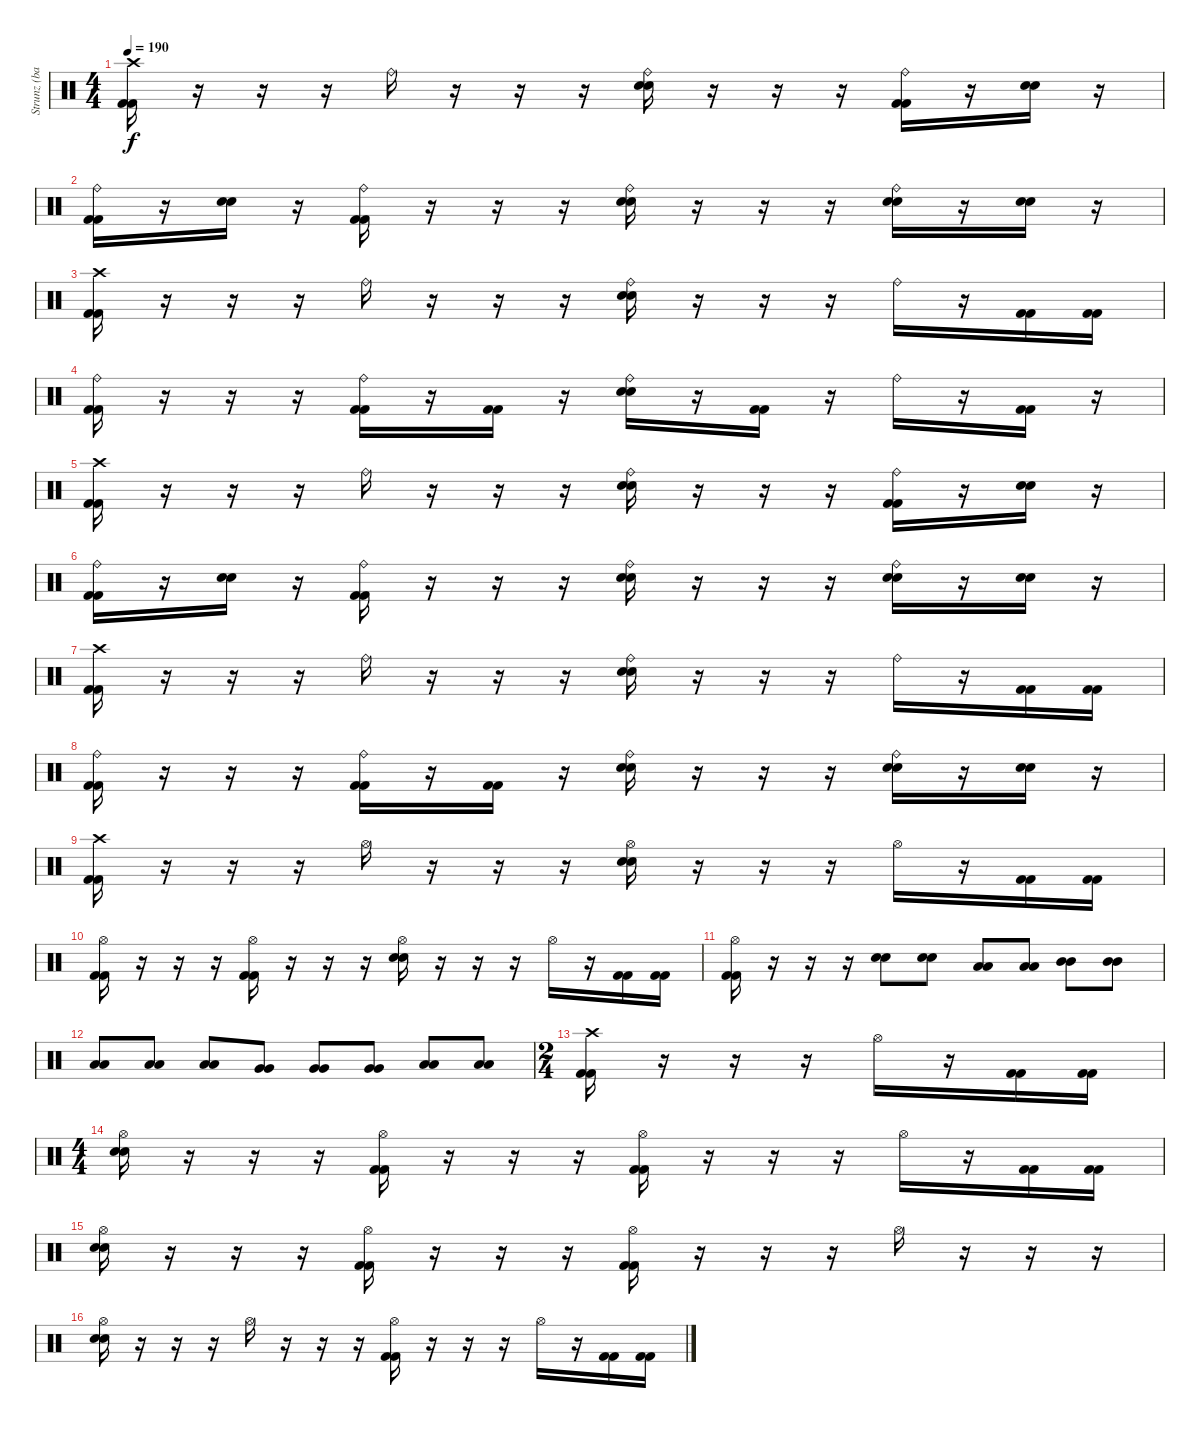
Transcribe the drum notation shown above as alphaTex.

\track ("Strunz (bateria)" "Strunz (ba") {instrument percussion}
\staff {score}
\articulation defaults
\ts (4 4)
\tempo 190
\clef neutral
\ks c
("Crash high (hit)" "Kick (hit) 2" "Kick (hit) 2").16{dy f} r.16 r.16 r.16 "Ride (bell)".16 r.16 r.16 r.16 ("Ride (bell)" "Snare (hit) 2" "Snare (hit) 2").16 r.16 r.16 r.16 ("Ride (bell)" "Kick (hit) 2" "Kick (hit) 2").16 r.16 ("Snare (hit) 2" "Snare (hit) 2").16 r.16 |
("Ride (bell)" "Kick (hit) 2" "Kick (hit) 2").16 r.16 ("Snare (hit) 2" "Snare (hit) 2").16 r.16 ("Ride (bell)" "Kick (hit) 2" "Kick (hit) 2").16 r.16 r.16 r.16 ("Ride (bell)" "Snare (hit) 2" "Snare (hit) 2").16 r.16 r.16 r.16 ("Ride (bell)" "Snare (hit) 2" "Snare (hit) 2").16 r.16 ("Snare (hit) 2" "Snare (hit) 2").16 r.16 |
("Crash high (hit)" "Kick (hit) 2" "Kick (hit) 2").16 r.16 r.16 r.16 "Ride (bell)".16 r.16 r.16 r.16 ("Ride (bell)" "Snare (hit) 2" "Snare (hit) 2").16 r.16 r.16 r.16 "Ride (bell)".16 r.16 ("Kick (hit) 2" "Kick (hit) 2").16 ("Kick (hit) 2" "Kick (hit) 2").16 |
("Ride (bell)" "Kick (hit) 2" "Kick (hit) 2").16 r.16 r.16 r.16 ("Ride (bell)" "Kick (hit) 2" "Kick (hit) 2").16 r.16 ("Kick (hit) 2" "Kick (hit) 2").16 r.16 ("Ride (bell)" "Snare (hit) 2" "Snare (hit) 2").16 r.16 ("Kick (hit) 2" "Kick (hit) 2").16 r.16 "Ride (bell)".16 r.16 ("Kick (hit) 2" "Kick (hit) 2").16 r.16 |
("Crash high (hit)" "Kick (hit) 2" "Kick (hit) 2").16 r.16 r.16 r.16 "Ride (bell)".16 r.16 r.16 r.16 ("Ride (bell)" "Snare (hit) 2" "Snare (hit) 2").16 r.16 r.16 r.16 ("Ride (bell)" "Kick (hit) 2" "Kick (hit) 2").16 r.16 ("Snare (hit) 2" "Snare (hit) 2").16 r.16 |
("Ride (bell)" "Kick (hit) 2" "Kick (hit) 2").16 r.16 ("Snare (hit) 2" "Snare (hit) 2").16 r.16 ("Ride (bell)" "Kick (hit) 2" "Kick (hit) 2").16 r.16 r.16 r.16 ("Ride (bell)" "Snare (hit) 2" "Snare (hit) 2").16 r.16 r.16 r.16 ("Ride (bell)" "Snare (hit) 2" "Snare (hit) 2").16 r.16 ("Snare (hit) 2" "Snare (hit) 2").16 r.16 |
("Crash high (hit)" "Kick (hit) 2" "Kick (hit) 2").16 r.16 r.16 r.16 "Ride (bell)".16 r.16 r.16 r.16 ("Ride (bell)" "Snare (hit) 2" "Snare (hit) 2").16 r.16 r.16 r.16 "Ride (bell)".16 r.16 ("Kick (hit) 2" "Kick (hit) 2").16 ("Kick (hit) 2" "Kick (hit) 2").16 |
("Ride (bell)" "Kick (hit) 2" "Kick (hit) 2").16 r.16 r.16 r.16 ("Ride (bell)" "Kick (hit) 2" "Kick (hit) 2").16 r.16 ("Kick (hit) 2" "Kick (hit) 2").16 r.16 ("Ride (bell)" "Snare (hit) 2" "Snare (hit) 2").16 r.16 r.16 r.16 ("Ride (bell)" "Snare (hit) 2" "Snare (hit) 2").16 r.16 ("Snare (hit) 2" "Snare (hit) 2").16 r.16 |
("Crash high (hit)" "Kick (hit) 2" "Kick (hit) 2").16 r.16 r.16 r.16 "Hi-Hat (open)".16 r.16 r.16 r.16 ("Hi-Hat (open)" "Snare (hit) 2" "Snare (hit) 2").16 r.16 r.16 r.16 "Hi-Hat (open)".16 r.16 ("Kick (hit) 2" "Kick (hit) 2").16 ("Kick (hit) 2" "Kick (hit) 2").16 |
("Hi-Hat (open)" "Kick (hit) 2" "Kick (hit) 2").16 r.16 r.16 r.16 ("Hi-Hat (open)" "Kick (hit) 2" "Kick (hit) 2").16 r.16 r.16 r.16 ("Hi-Hat (open)" "Snare (hit) 2" "Snare (hit) 2").16 r.16 r.16 r.16 "Hi-Hat (open)".16 r.16 ("Kick (hit) 2" "Kick (hit) 2").16 ("Kick (hit) 2" "Kick (hit) 2").16 |
("Hi-Hat (open)" "Kick (hit) 2" "Kick (hit) 2").16 r.16 r.16 r.16 ("Snare (hit) 2" "Snare (hit) 2").8 ("Snare (hit) 2" "Snare (hit) 2").8 ("Low Tom (hit)" "Low Tom (hit)").8 ("Low Tom (hit)" "Low Tom (hit)").8 ("Mid Tom (hit)" "Mid Tom (hit)").8 ("Mid Tom (hit)" "Mid Tom (hit)").8 |
("Low Tom (hit)" "Low Tom (hit)").8 ("Low Tom (hit)" "Low Tom (hit)").8 ("Low Tom (hit)" "Low Tom (hit)").8 ("Very Low Tom (hit)" "Very Low Tom (hit)").8 ("Very Low Tom (hit)" "Very Low Tom (hit)").8 ("Very Low Tom (hit)" "Very Low Tom (hit)").8 ("Low Floor Tom (hit)" "Low Floor Tom (hit)").8 ("Low Floor Tom (hit)" "Low Floor Tom (hit)").8 |
\ts (2 4)
("Crash high (hit)" "Kick (hit) 2" "Kick (hit) 2").16 r.16 r.16 r.16 "Hi-Hat (open)".16 r.16 ("Kick (hit) 2" "Kick (hit) 2").16 ("Kick (hit) 2" "Kick (hit) 2").16 |
\ts (4 4)
("Hi-Hat (open)" "Snare (hit) 2" "Snare (hit) 2").16 r.16 r.16 r.16 ("Hi-Hat (open)" "Kick (hit) 2" "Kick (hit) 2").16 r.16 r.16 r.16 ("Hi-Hat (open)" "Kick (hit) 2" "Kick (hit) 2").16 r.16 r.16 r.16 "Hi-Hat (open)".16 r.16 ("Kick (hit) 2" "Kick (hit) 2").16 ("Kick (hit) 2" "Kick (hit) 2").16 |
("Hi-Hat (open)" "Snare (hit) 2" "Snare (hit) 2").16 r.16 r.16 r.16 ("Hi-Hat (open)" "Kick (hit) 2" "Kick (hit) 2").16 r.16 r.16 r.16 ("Hi-Hat (open)" "Kick (hit) 2" "Kick (hit) 2").16 r.16 r.16 r.16 "Hi-Hat (open)".16 r.16 r.16 r.16 |
("Hi-Hat (open)" "Snare (hit) 2" "Snare (hit) 2").16 r.16 r.16 r.16 "Hi-Hat (open)".16 r.16 r.16 r.16 ("Hi-Hat (open)" "Kick (hit) 2" "Kick (hit) 2").16 r.16 r.16 r.16 "Hi-Hat (open)".16 r.16 ("Kick (hit) 2" "Kick (hit) 2").16 ("Kick (hit) 2" "Kick (hit) 2").16
